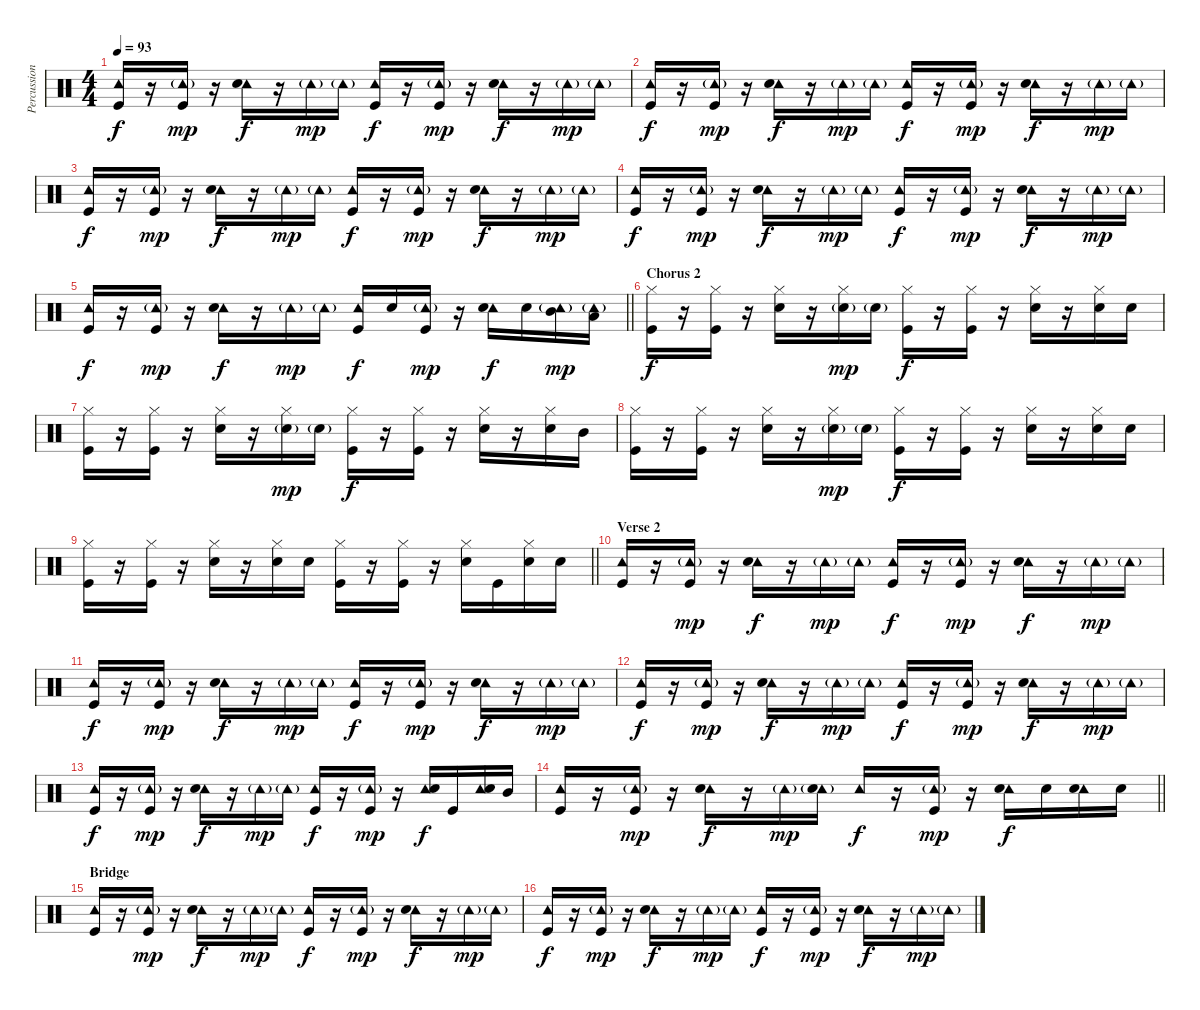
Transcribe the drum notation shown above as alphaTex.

\track ("Percussion" "Percussion") {instrument percussion}
\staff {score}
\articulation defaults
\ts (4 4)
\tempo 93
\clef neutral
\ks c
("Tambourine (hit)" "Kick (hit)").16{dy f} r.16 ("Tambourine (hit)"{g} "Kick (hit)").16{dy mp} r.16 ("Tambourine (hit)" "Snare (hit) 2").16{dy f} r.16 "Tambourine (hit)"{g}.16{dy mp} "Tambourine (hit)"{g}.16 ("Tambourine (hit)" "Kick (hit)").16{dy f} r.16 ("Tambourine (hit)"{g} "Kick (hit)").16{dy mp} r.16 ("Tambourine (hit)" "Snare (hit) 2").16{dy f} r.16 "Tambourine (hit)"{g}.16{dy mp} "Tambourine (hit)"{g}.16 |
("Tambourine (hit)" "Kick (hit)").16{dy f} r.16 ("Tambourine (hit)"{g} "Kick (hit)").16{dy mp} r.16 ("Tambourine (hit)" "Snare (hit) 2").16{dy f} r.16 "Tambourine (hit)"{g}.16{dy mp} "Tambourine (hit)"{g}.16 ("Tambourine (hit)" "Kick (hit)").16{dy f} r.16 ("Tambourine (hit)"{g} "Kick (hit)").16{dy mp} r.16 ("Tambourine (hit)" "Snare (hit) 2").16{dy f} r.16 "Tambourine (hit)"{g}.16{dy mp} "Tambourine (hit)"{g}.16 |
("Tambourine (hit)" "Kick (hit)").16{dy f} r.16 ("Tambourine (hit)"{g} "Kick (hit)").16{dy mp} r.16 ("Tambourine (hit)" "Snare (hit) 2").16{dy f} r.16 "Tambourine (hit)"{g}.16{dy mp} "Tambourine (hit)"{g}.16 ("Tambourine (hit)" "Kick (hit)").16{dy f} r.16 ("Tambourine (hit)"{g} "Kick (hit)").16{dy mp} r.16 ("Tambourine (hit)" "Snare (hit) 2").16{dy f} r.16 "Tambourine (hit)"{g}.16{dy mp} "Tambourine (hit)"{g}.16 |
("Tambourine (hit)" "Kick (hit)").16{dy f} r.16 ("Tambourine (hit)"{g} "Kick (hit)").16{dy mp} r.16 ("Tambourine (hit)" "Snare (hit) 2").16{dy f} r.16 "Tambourine (hit)"{g}.16{dy mp} "Tambourine (hit)"{g}.16 ("Tambourine (hit)" "Kick (hit)").16{dy f} r.16 ("Tambourine (hit)"{g} "Kick (hit)").16{dy mp} r.16 ("Tambourine (hit)" "Snare (hit) 2").16{dy f} r.16 "Tambourine (hit)"{g}.16{dy mp} "Tambourine (hit)"{g}.16 |
\barLineRight lightlight
("Tambourine (hit)" "Kick (hit)").16{dy f} r.16 ("Tambourine (hit)"{g} "Kick (hit)").16{dy mp} r.16 ("Tambourine (hit)" "Snare (hit) 2").16{dy f} r.16 "Tambourine (hit)"{g}.16{dy mp} "Tambourine (hit)"{g}.16 ("Tambourine (hit)" "Kick (hit)").16{dy f} "Snare (hit) 2".16 ("Tambourine (hit)"{g} "Kick (hit)").16{dy mp} r.16 ("Tambourine (hit)" "Snare (hit) 2").16{dy f} "Snare (hit) 2".16 ("Tambourine (hit)"{g} "Mid Tom (hit)").16{dy mp} ("Tambourine (hit)"{g} "Low Tom (hit)").16 |
\section ("" "Chorus 2")
("Hi-Hat (closed)" "Kick (hit)").16{dy f} r.16 ("Hi-Hat (closed)" "Kick (hit)").16 r.16 ("Hi-Hat (closed)" "Snare (hit) 2").16 r.16 ("Hi-Hat (closed)" "Snare (hit) 2"{g}).16{dy mp} "Snare (hit) 2"{g}.16 ("Hi-Hat (closed)" "Kick (hit)").16{dy f} r.16 ("Hi-Hat (closed)" "Kick (hit)").16 r.16 ("Hi-Hat (closed)" "Snare (hit) 2").16 r.16 ("Hi-Hat (closed)" "Snare (hit) 2").16 "Snare (hit) 2".16 |
("Hi-Hat (closed)" "Kick (hit)").16 r.16 ("Hi-Hat (closed)" "Kick (hit)").16 r.16 ("Hi-Hat (closed)" "Snare (hit) 2").16 r.16 ("Hi-Hat (closed)" "Snare (hit) 2"{g}).16{dy mp} "Snare (hit) 2"{g}.16 ("Hi-Hat (closed)" "Kick (hit)").16{dy f} r.16 ("Hi-Hat (closed)" "Kick (hit)").16 r.16 ("Hi-Hat (closed)" "Snare (hit) 2").16 r.16 ("Hi-Hat (closed)" "Snare (hit) 2").16 "Mid Tom (hit)".16 |
("Hi-Hat (closed)" "Kick (hit)").16 r.16 ("Hi-Hat (closed)" "Kick (hit)").16 r.16 ("Hi-Hat (closed)" "Snare (hit) 2").16 r.16 ("Hi-Hat (closed)" "Snare (hit) 2"{g}).16{dy mp} "Snare (hit) 2"{g}.16 ("Hi-Hat (closed)" "Kick (hit)").16{dy f} r.16 ("Hi-Hat (closed)" "Kick (hit)").16 r.16 ("Hi-Hat (closed)" "Snare (hit) 2").16 r.16 ("Hi-Hat (closed)" "Snare (hit) 2").16 "Snare (hit) 2".16 |
\barLineRight lightlight
("Hi-Hat (closed)" "Kick (hit)").16 r.16 ("Hi-Hat (closed)" "Kick (hit)").16 r.16 ("Hi-Hat (closed)" "Snare (hit) 2").16 r.16 ("Hi-Hat (closed)" "Snare (hit) 2").16 "Snare (hit) 2".16 ("Hi-Hat (closed)" "Kick (hit)").16 r.16 ("Hi-Hat (closed)" "Kick (hit)").16 r.16 ("Hi-Hat (closed)" "Snare (hit) 2").16 "Kick (hit)".16 ("Hi-Hat (closed)" "Snare (hit) 2").16 "Snare (hit) 2".16 |
\section ("" "Verse 2")
("Tambourine (hit)" "Kick (hit)").16 r.16 ("Tambourine (hit)"{g} "Kick (hit)").16{dy mp} r.16 ("Tambourine (hit)" "Snare (hit) 2").16{dy f} r.16 "Tambourine (hit)"{g}.16{dy mp} "Tambourine (hit)"{g}.16 ("Tambourine (hit)" "Kick (hit)").16{dy f} r.16 ("Tambourine (hit)"{g} "Kick (hit)").16{dy mp} r.16 ("Tambourine (hit)" "Snare (hit) 2").16{dy f} r.16 "Tambourine (hit)"{g}.16{dy mp} "Tambourine (hit)"{g}.16 |
("Tambourine (hit)" "Kick (hit)").16{dy f} r.16 ("Tambourine (hit)"{g} "Kick (hit)").16{dy mp} r.16 ("Tambourine (hit)" "Snare (hit) 2").16{dy f} r.16 "Tambourine (hit)"{g}.16{dy mp} "Tambourine (hit)"{g}.16 ("Tambourine (hit)" "Kick (hit)").16{dy f} r.16 ("Tambourine (hit)"{g} "Kick (hit)").16{dy mp} r.16 ("Tambourine (hit)" "Snare (hit) 2").16{dy f} r.16 "Tambourine (hit)"{g}.16{dy mp} "Tambourine (hit)"{g}.16 |
("Tambourine (hit)" "Kick (hit)").16{dy f} r.16 ("Tambourine (hit)"{g} "Kick (hit)").16{dy mp} r.16 ("Tambourine (hit)" "Snare (hit) 2").16{dy f} r.16 "Tambourine (hit)"{g}.16{dy mp} "Tambourine (hit)"{g}.16 ("Tambourine (hit)" "Kick (hit)").16{dy f} r.16 ("Tambourine (hit)"{g} "Kick (hit)").16{dy mp} r.16 ("Tambourine (hit)" "Snare (hit) 2").16{dy f} r.16 "Tambourine (hit)"{g}.16{dy mp} "Tambourine (hit)"{g}.16 |
("Tambourine (hit)" "Kick (hit)").16{dy f} r.16 ("Tambourine (hit)"{g} "Kick (hit)").16{dy mp} r.16 ("Tambourine (hit)" "Snare (hit) 2").16{dy f} r.16 "Tambourine (hit)"{g}.16{dy mp} "Tambourine (hit)"{g}.16 ("Tambourine (hit)" "Kick (hit)").16{dy f} r.16 ("Tambourine (hit)"{g} "Kick (hit)").16{dy mp} r.16 ("Tambourine (hit)" "Snare (hit) 2").16{dy f} "Kick (hit)".16 ("Tambourine (hit)" "Snare (hit) 2").16 "Mid Tom (hit)".16 |
\barLineRight lightlight
("Tambourine (hit)" "Kick (hit)").16 r.16 ("Tambourine (hit)"{g} "Kick (hit)").16{dy mp} r.16 ("Tambourine (hit)" "Snare (hit) 2").16{dy f} r.16 "Tambourine (hit)"{g}.16{dy mp} ("Tambourine (hit)"{g} "Snare (hit) 2").16 "Tambourine (hit)".16{dy f} r.16 ("Tambourine (hit)"{g} "Kick (hit)").16{dy mp} r.16 ("Tambourine (hit)" "Snare (hit) 2").16{dy f} "Snare (hit) 2".16 ("Tambourine (hit)" "Snare (hit) 2").16 "Snare (hit) 2".16 |
\section ("" "Bridge")
("Tambourine (hit)" "Kick (hit)").16 r.16 ("Tambourine (hit)"{g} "Kick (hit)").16{dy mp} r.16 ("Tambourine (hit)" "Snare (hit) 2").16{dy f} r.16 "Tambourine (hit)"{g}.16{dy mp} "Tambourine (hit)"{g}.16 ("Tambourine (hit)" "Kick (hit)").16{dy f} r.16 ("Tambourine (hit)"{g} "Kick (hit)").16{dy mp} r.16 ("Tambourine (hit)" "Snare (hit) 2").16{dy f} r.16 "Tambourine (hit)"{g}.16{dy mp} "Tambourine (hit)"{g}.16 |
("Tambourine (hit)" "Kick (hit)").16{dy f} r.16 ("Tambourine (hit)"{g} "Kick (hit)").16{dy mp} r.16 ("Tambourine (hit)" "Snare (hit) 2").16{dy f} r.16 "Tambourine (hit)"{g}.16{dy mp} "Tambourine (hit)"{g}.16 ("Tambourine (hit)" "Kick (hit)").16{dy f} r.16 ("Tambourine (hit)"{g} "Kick (hit)").16{dy mp} r.16 ("Tambourine (hit)" "Snare (hit) 2").16{dy f} r.16 "Tambourine (hit)"{g}.16{dy mp} "Tambourine (hit)"{g}.16
